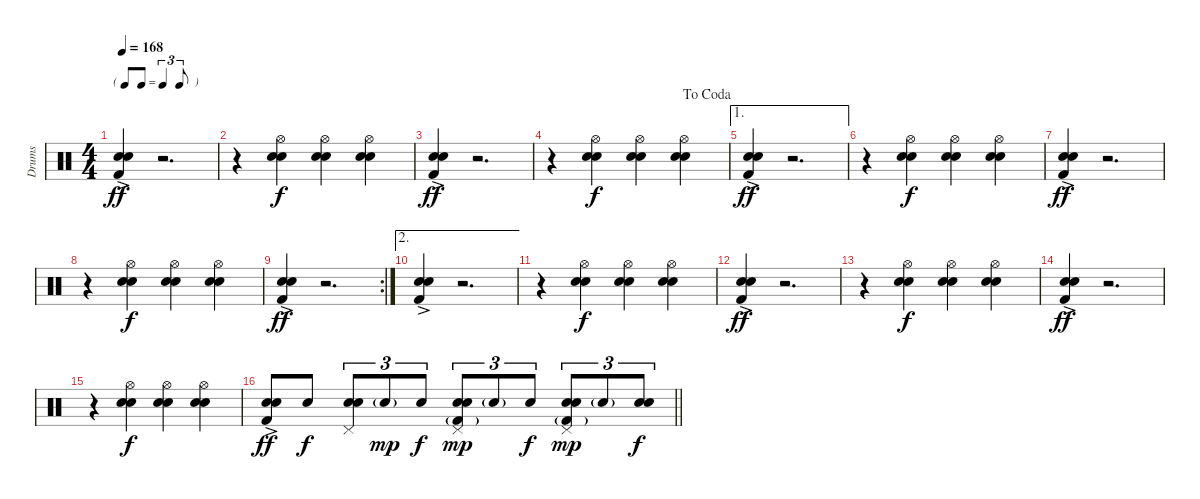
\track ("Drums" "Drums") {instrument percussion}
\staff {score}
\articulation defaults
\ts (4 4)
\tf triplet8th
\tempo 168
\clef neutral
\ks c
("Electric Snare (hit)"{ac} "Snare (hit) 2" "Kick (hit) 2"{ac}).4{dy ff} r.2{d} |
r.4 ("Hi-Hat (open)" "Electric Snare (hit)" "Snare (hit) 2").4{dy f} ("Hi-Hat (open)" "Electric Snare (hit)" "Snare (hit) 2").4 ("Hi-Hat (open)" "Electric Snare (hit)" "Snare (hit) 2").4 |
("Electric Snare (hit)"{ac} "Snare (hit) 2" "Kick (hit) 2"{ac}).4{dy ff} r.2{d} |
\jump dacoda
r.4 ("Hi-Hat (open)" "Electric Snare (hit)" "Snare (hit) 2").4{dy f} ("Hi-Hat (open)" "Electric Snare (hit)" "Snare (hit) 2").4 ("Hi-Hat (open)" "Electric Snare (hit)" "Snare (hit) 2").4 |
\ae 1
("Electric Snare (hit)"{ac} "Snare (hit) 2" "Kick (hit) 2"{ac}).4{dy ff} r.2{d} |
r.4 ("Hi-Hat (open)" "Electric Snare (hit)" "Snare (hit) 2").4{dy f} ("Hi-Hat (open)" "Electric Snare (hit)" "Snare (hit) 2").4 ("Hi-Hat (open)" "Electric Snare (hit)" "Snare (hit) 2").4 |
("Electric Snare (hit)"{ac} "Snare (hit) 2" "Kick (hit) 2"{ac}).4{dy ff} r.2{d} |
r.4 ("Hi-Hat (open)" "Electric Snare (hit)" "Snare (hit) 2").4{dy f} ("Hi-Hat (open)" "Electric Snare (hit)" "Snare (hit) 2").4 ("Hi-Hat (open)" "Electric Snare (hit)" "Snare (hit) 2").4 |
\rc 2
("Electric Snare (hit)"{ac} "Snare (hit) 2" "Kick (hit) 2"{ac}).4{dy ff} r.2{d} |
\ae 2
("Electric Snare (hit)"{ac} "Snare (hit) 2" "Kick (hit) 2"{ac}).4 r.2{d} |
r.4 ("Hi-Hat (open)" "Electric Snare (hit)" "Snare (hit) 2").4{dy f} ("Hi-Hat (open)" "Electric Snare (hit)" "Snare (hit) 2").4 ("Hi-Hat (open)" "Electric Snare (hit)" "Snare (hit) 2").4 |
("Electric Snare (hit)"{ac} "Snare (hit) 2" "Kick (hit) 2"{ac}).4{dy ff} r.2{d} |
r.4 ("Hi-Hat (open)" "Electric Snare (hit)" "Snare (hit) 2").4{dy f} ("Hi-Hat (open)" "Electric Snare (hit)" "Snare (hit) 2").4 ("Hi-Hat (open)" "Electric Snare (hit)" "Snare (hit) 2").4 |
("Electric Snare (hit)"{ac} "Snare (hit) 2" "Kick (hit) 2"{ac}).4{dy ff} r.2{d} |
r.4 ("Hi-Hat (open)" "Electric Snare (hit)" "Snare (hit) 2").4{dy f} ("Hi-Hat (open)" "Electric Snare (hit)" "Snare (hit) 2").4 ("Hi-Hat (open)" "Electric Snare (hit)" "Snare (hit) 2").4 |
\barLineRight lightlight
("Electric Snare (hit)"{ac} "Snare (hit) 2" "Kick (hit) 2"{ac}).8{dy ff} "Snare (hit) 2".8{dy f} ("Pedal Hi-Hat (hit)" "Electric Snare (hit)" "Snare (hit) 2").8{tu (3 2)} "Snare (hit) 2"{g}.8{tu (3 2) dy mp} "Snare (hit) 2".8{tu (3 2) dy f} ("Pedal Hi-Hat (hit)" "Electric Snare (hit)" "Snare (hit) 2" "Kick (hit) 2"{g}).8{tu (3 2) dy mp} "Snare (hit) 2"{g}.8{tu (3 2)} "Snare (hit) 2".8{tu (3 2) dy f} ("Pedal Hi-Hat (hit)" "Electric Snare (hit)" "Snare (hit) 2" "Kick (hit) 2"{g}).8{tu (3 2) dy mp} "Snare (hit) 2"{g}.8{tu (3 2)} ("Electric Snare (hit)" "Snare (hit) 2").8{tu (3 2) dy f}
